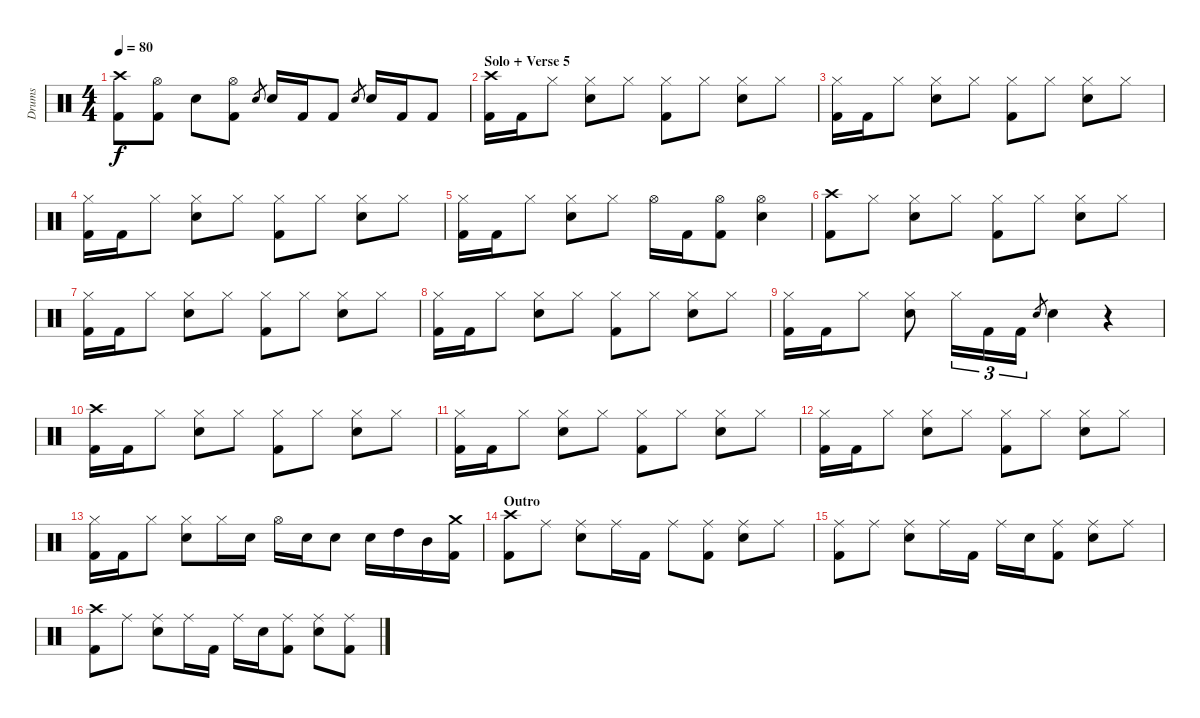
\track ("Drums" "Drums") {instrument percussion}
\staff {score}
\articulation defaults
\ts (4 4)
\tempo 80
\clef neutral
\ks c
("Crash high (hit)" "Kick (hit) 2").8{dy f} ("Hi-Hat (open)" "Kick (hit) 2").8 "Electric Snare (hit)".8 ("Hi-Hat (open)" "Kick (hit) 2").8 "Electric Snare (hit)".8{gr} "Electric Snare (hit)".16 "Kick (hit) 2".16 "Kick (hit) 2".8 "Electric Snare (hit)".8{gr} "Electric Snare (hit)".16 "Kick (hit) 2".16 "Kick (hit) 2".8 |
\section ("" "Solo + Verse 5")
("Crash high (hit)" "Kick (hit) 2").16 "Kick (hit) 2".16 "Hi-Hat (closed)".8 ("Hi-Hat (closed)" "Electric Snare (hit)").8 "Hi-Hat (closed)".8 ("Hi-Hat (closed)" "Kick (hit) 2").8 "Hi-Hat (closed)".8 ("Hi-Hat (closed)" "Electric Snare (hit)").8 "Hi-Hat (closed)".8 |
("Hi-Hat (closed)" "Kick (hit) 2").16 "Kick (hit) 2".16 "Hi-Hat (closed)".8 ("Hi-Hat (closed)" "Electric Snare (hit)").8 "Hi-Hat (closed)".8 ("Hi-Hat (closed)" "Kick (hit) 2").8 "Hi-Hat (closed)".8 ("Hi-Hat (closed)" "Electric Snare (hit)").8 "Hi-Hat (closed)".8 |
("Hi-Hat (closed)" "Kick (hit) 2").16 "Kick (hit) 2".16 "Hi-Hat (closed)".8 ("Hi-Hat (closed)" "Electric Snare (hit)").8 "Hi-Hat (closed)".8 ("Hi-Hat (closed)" "Kick (hit) 2").8 "Hi-Hat (closed)".8 ("Hi-Hat (closed)" "Electric Snare (hit)").8 "Hi-Hat (closed)".8 |
("Hi-Hat (closed)" "Kick (hit) 2").16 "Kick (hit) 2".16 "Hi-Hat (closed)".8 ("Hi-Hat (closed)" "Electric Snare (hit)").8 "Hi-Hat (closed)".8 "Hi-Hat (open)".16 "Kick (hit) 2".16 ("Hi-Hat (open)" "Kick (hit) 2").8 ("Hi-Hat (open)" "Electric Snare (hit)").4 |
("Crash high (hit)" "Kick (hit) 2").8 "Hi-Hat (closed)".8 ("Hi-Hat (closed)" "Electric Snare (hit)").8 "Hi-Hat (closed)".8 ("Hi-Hat (closed)" "Kick (hit) 2").8 "Hi-Hat (closed)".8 ("Hi-Hat (closed)" "Electric Snare (hit)").8 "Hi-Hat (closed)".8 |
("Hi-Hat (closed)" "Kick (hit) 2").16 "Kick (hit) 2".16 "Hi-Hat (closed)".8 ("Hi-Hat (closed)" "Electric Snare (hit)").8 "Hi-Hat (closed)".8 ("Hi-Hat (closed)" "Kick (hit) 2").8 "Hi-Hat (closed)".8 ("Hi-Hat (closed)" "Electric Snare (hit)").8 "Hi-Hat (closed)".8 |
("Hi-Hat (closed)" "Kick (hit) 2").16 "Kick (hit) 2".16 "Hi-Hat (closed)".8 ("Hi-Hat (closed)" "Electric Snare (hit)").8 "Hi-Hat (closed)".8 ("Hi-Hat (closed)" "Kick (hit) 2").8 "Hi-Hat (closed)".8 ("Hi-Hat (closed)" "Electric Snare (hit)").8 "Hi-Hat (closed)".8 |
("Hi-Hat (closed)" "Kick (hit) 2").16 "Kick (hit) 2".16 "Hi-Hat (closed)".8 ("Hi-Hat (closed)" "Electric Snare (hit)").8 "Hi-Hat (closed)".16{tu (3 2)} "Kick (hit) 2".16{tu (3 2)} "Kick (hit) 2".16{tu (3 2)} "Electric Snare (hit)".8{gr} "Electric Snare (hit)".4 r.4 |
("Crash high (hit)" "Kick (hit) 2").16 "Kick (hit) 2".16 "Hi-Hat (closed)".8 ("Hi-Hat (closed)" "Electric Snare (hit)").8 "Hi-Hat (closed)".8 ("Hi-Hat (closed)" "Kick (hit) 2").8 "Hi-Hat (closed)".8 ("Hi-Hat (closed)" "Electric Snare (hit)").8 "Hi-Hat (closed)".8 |
("Hi-Hat (closed)" "Kick (hit) 2").16 "Kick (hit) 2".16 "Hi-Hat (closed)".8 ("Hi-Hat (closed)" "Electric Snare (hit)").8 "Hi-Hat (closed)".8 ("Hi-Hat (closed)" "Kick (hit) 2").8 "Hi-Hat (closed)".8 ("Hi-Hat (closed)" "Electric Snare (hit)").8 "Hi-Hat (closed)".8 |
("Hi-Hat (closed)" "Kick (hit) 2").16 "Kick (hit) 2".16 "Hi-Hat (closed)".8 ("Hi-Hat (closed)" "Electric Snare (hit)").8 "Hi-Hat (closed)".8 ("Hi-Hat (closed)" "Kick (hit) 2").8 "Hi-Hat (closed)".8 ("Hi-Hat (closed)" "Electric Snare (hit)").8 "Hi-Hat (closed)".8 |
("Hi-Hat (closed)" "Kick (hit) 2").16 "Kick (hit) 2".16 "Hi-Hat (closed)".8 ("Hi-Hat (closed)" "Electric Snare (hit)").8 "Hi-Hat (closed)".16 "Electric Snare (hit)".16 "Hi-Hat (open)".16 "Electric Snare (hit)".16 "Electric Snare (hit)".8 "Electric Snare (hit)".16 "High Tom (hit)".16 "Mid Tom (hit)".16 ("Crash medium (hit)" "Kick (hit) 2").16 |
\section ("" "Outro")
("Crash high (hit)" "Kick (hit) 2").8 "Ride (middle)".8 ("Ride (middle)" "Electric Snare (hit)").8 "Ride (middle)".16 "Kick (hit) 2".16 "Ride (middle)".8 ("Ride (middle)" "Kick (hit) 2").8 ("Ride (middle)" "Electric Snare (hit)").8 "Ride (middle)".8 |
("Ride (middle)" "Kick (hit) 2").8 "Ride (middle)".8 ("Ride (middle)" "Electric Snare (hit)").8 "Ride (middle)".16 "Kick (hit) 2".16 "Ride (middle)".16 "Electric Snare (hit)".16 ("Ride (middle)" "Kick (hit) 2").8 ("Ride (middle)" "Electric Snare (hit)").8 "Ride (middle)".8 |
("Crash high (hit)" "Kick (hit) 2").8 "Ride (middle)".8 ("Ride (middle)" "Electric Snare (hit)").8 "Ride (middle)".16 "Kick (hit) 2".16 "Ride (middle)".16 "Electric Snare (hit)".16 ("Ride (middle)" "Kick (hit) 2").8 ("Ride (middle)" "Electric Snare (hit)").8 ("Ride (middle)" "Kick (hit) 2").8
